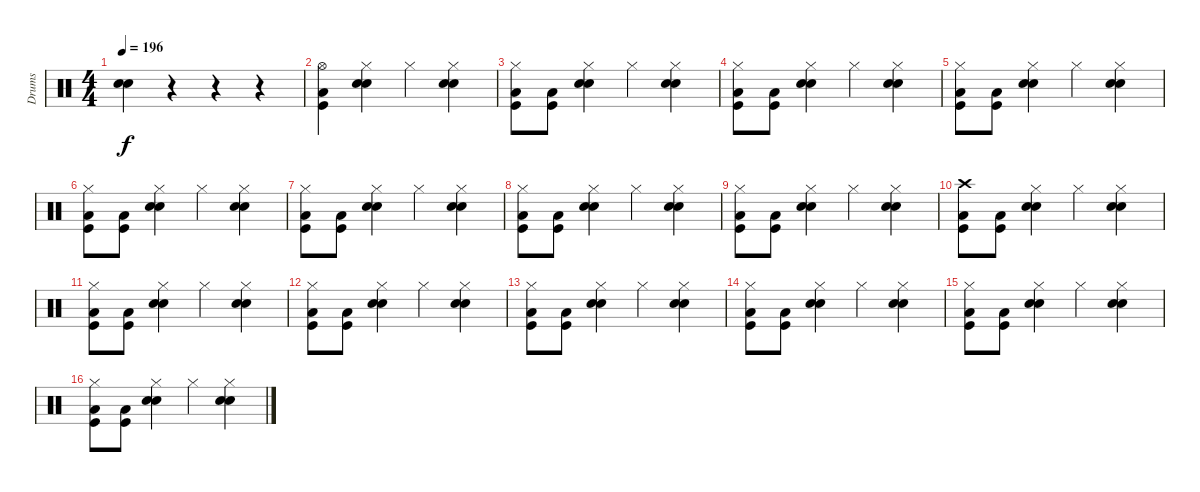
\track ("Drums" "Drums") {instrument percussion}
\staff {score}
\articulation defaults
\ts (4 4)
\tempo 196
\clef neutral
\ks c
("Snare (hit) 2" "Electric Snare (hit)").4{dy f} r.4 r.4 r.4 |
("Hi-Hat (open)" "Kick (hit)" "Low Tom (hit)").4 ("Hi-Hat (closed)" "Snare (hit) 2" "Electric Snare (hit)").4 "Hi-Hat (closed)".4 ("Hi-Hat (closed)" "Snare (hit) 2" "Electric Snare (hit)").4 |
("Hi-Hat (closed)" "Kick (hit)" "Low Tom (hit)").8 ("Kick (hit)" "Low Tom (hit)").8 ("Hi-Hat (closed)" "Snare (hit) 2" "Electric Snare (hit)").4 "Hi-Hat (closed)".4 ("Hi-Hat (closed)" "Snare (hit) 2" "Electric Snare (hit)").4 |
("Hi-Hat (closed)" "Kick (hit)" "Low Tom (hit)").8 ("Kick (hit)" "Low Tom (hit)").8 ("Hi-Hat (closed)" "Snare (hit) 2" "Electric Snare (hit)").4 "Hi-Hat (closed)".4 ("Hi-Hat (closed)" "Snare (hit) 2" "Electric Snare (hit)").4 |
("Hi-Hat (closed)" "Kick (hit)" "Low Tom (hit)").8 ("Kick (hit)" "Low Tom (hit)").8 ("Hi-Hat (closed)" "Snare (hit) 2" "Electric Snare (hit)").4 "Hi-Hat (closed)".4 ("Hi-Hat (closed)" "Snare (hit) 2" "Electric Snare (hit)").4 |
("Hi-Hat (closed)" "Kick (hit)" "Low Tom (hit)").8 ("Kick (hit)" "Low Tom (hit)").8 ("Hi-Hat (closed)" "Snare (hit) 2" "Electric Snare (hit)").4 "Hi-Hat (closed)".4 ("Hi-Hat (closed)" "Snare (hit) 2" "Electric Snare (hit)").4 |
("Hi-Hat (closed)" "Kick (hit)" "Low Tom (hit)").8 ("Kick (hit)" "Low Tom (hit)").8 ("Hi-Hat (closed)" "Snare (hit) 2" "Electric Snare (hit)").4 "Hi-Hat (closed)".4 ("Hi-Hat (closed)" "Snare (hit) 2" "Electric Snare (hit)").4 |
("Hi-Hat (closed)" "Kick (hit)" "Low Tom (hit)").8 ("Kick (hit)" "Low Tom (hit)").8 ("Hi-Hat (closed)" "Snare (hit) 2" "Electric Snare (hit)").4 "Hi-Hat (closed)".4 ("Hi-Hat (closed)" "Snare (hit) 2" "Electric Snare (hit)").4 |
("Hi-Hat (closed)" "Kick (hit)" "Low Tom (hit)").8 ("Kick (hit)" "Low Tom (hit)").8 ("Hi-Hat (closed)" "Snare (hit) 2" "Electric Snare (hit)").4 "Hi-Hat (closed)".4 ("Hi-Hat (closed)" "Snare (hit) 2" "Electric Snare (hit)").4 |
("Crash high (hit)" "Kick (hit)" "Low Tom (hit)").8 ("Kick (hit)" "Low Tom (hit)").8 ("Hi-Hat (closed)" "Snare (hit) 2" "Electric Snare (hit)").4 "Hi-Hat (closed)".4 ("Hi-Hat (closed)" "Snare (hit) 2" "Electric Snare (hit)").4 |
("Hi-Hat (closed)" "Kick (hit)" "Low Tom (hit)").8 ("Kick (hit)" "Low Tom (hit)").8 ("Hi-Hat (closed)" "Snare (hit) 2" "Electric Snare (hit)").4 "Hi-Hat (closed)".4 ("Hi-Hat (closed)" "Snare (hit) 2" "Electric Snare (hit)").4 |
("Hi-Hat (closed)" "Kick (hit)" "Low Tom (hit)").8 ("Kick (hit)" "Low Tom (hit)").8 ("Hi-Hat (closed)" "Snare (hit) 2" "Electric Snare (hit)").4 "Hi-Hat (closed)".4 ("Hi-Hat (closed)" "Snare (hit) 2" "Electric Snare (hit)").4 |
("Hi-Hat (closed)" "Kick (hit)" "Low Tom (hit)").8 ("Kick (hit)" "Low Tom (hit)").8 ("Hi-Hat (closed)" "Snare (hit) 2" "Electric Snare (hit)").4 "Hi-Hat (closed)".4 ("Hi-Hat (closed)" "Snare (hit) 2" "Electric Snare (hit)").4 |
("Hi-Hat (closed)" "Kick (hit)" "Low Tom (hit)").8 ("Kick (hit)" "Low Tom (hit)").8 ("Hi-Hat (closed)" "Snare (hit) 2" "Electric Snare (hit)").4 "Hi-Hat (closed)".4 ("Hi-Hat (closed)" "Snare (hit) 2" "Electric Snare (hit)").4 |
("Hi-Hat (closed)" "Kick (hit)" "Low Tom (hit)").8 ("Kick (hit)" "Low Tom (hit)").8 ("Hi-Hat (closed)" "Snare (hit) 2" "Electric Snare (hit)").4 "Hi-Hat (closed)".4 ("Hi-Hat (closed)" "Snare (hit) 2" "Electric Snare (hit)").4 |
("Hi-Hat (closed)" "Kick (hit)" "Low Tom (hit)").8 ("Kick (hit)" "Low Tom (hit)").8 ("Hi-Hat (closed)" "Snare (hit) 2" "Electric Snare (hit)").4 "Hi-Hat (closed)".4 ("Hi-Hat (closed)" "Snare (hit) 2" "Electric Snare (hit)").4
